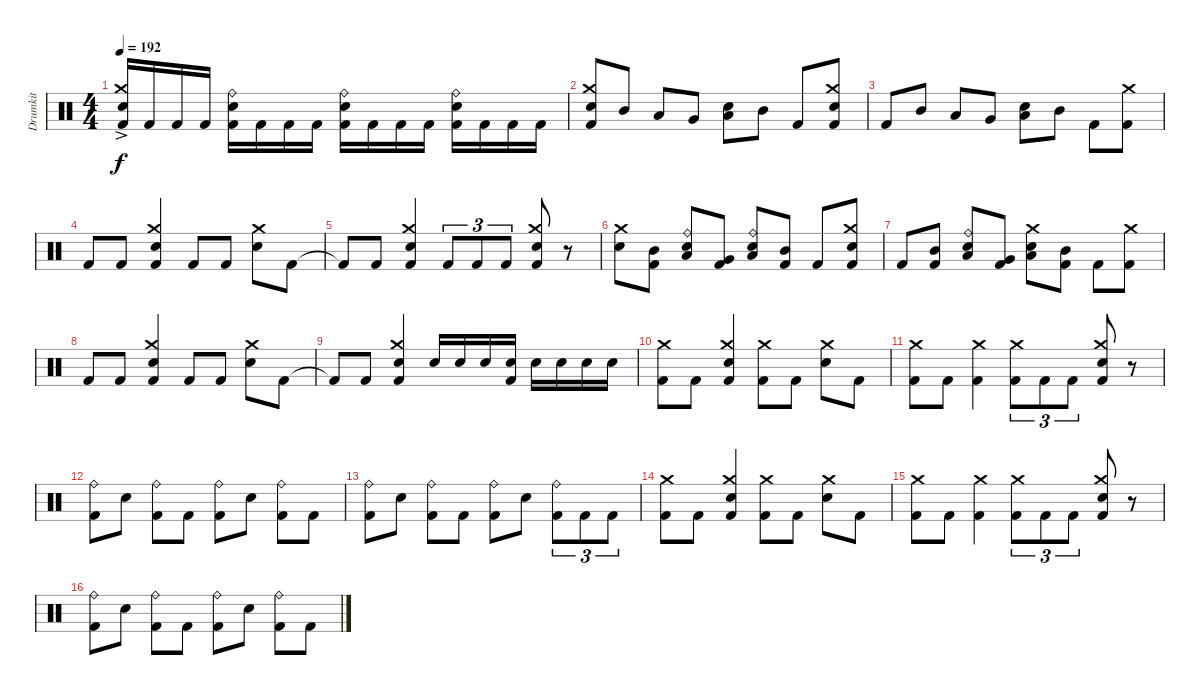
\track ("Drumkit" "Drumkit") {instrument percussion}
\staff {score}
\articulation defaults
\ts (4 4)
\tempo 192
\clef neutral
\ks c
("Kick (hit) 2" "Crash medium (hit)"{ac} "Snare (hit) 2").16{dy f} "Kick (hit) 2".16 "Kick (hit) 2".16 "Kick (hit) 2".16 ("Kick (hit) 2" "Ride (bell)" "Snare (hit) 2").16 "Kick (hit) 2".16 "Kick (hit) 2".16 "Kick (hit) 2".16 ("Kick (hit) 2" "Ride (bell)" "Snare (hit) 2").16 "Kick (hit) 2".16 "Kick (hit) 2".16 "Kick (hit) 2".16 ("Kick (hit) 2" "Ride (bell)" "Snare (hit) 2").16 "Kick (hit) 2".16 "Kick (hit) 2".16 "Kick (hit) 2".16 |
("Kick (hit) 2" "Snare (hit) 2" "Crash medium (hit)").8 "Mid Tom (hit)".8 "Low Tom (hit)".8 "Very Low Tom (hit)".8 ("Snare (hit) 2" "Low Tom (hit)").8 "Mid Tom (hit)".8 "Kick (hit) 2".8 ("Kick (hit) 2" "Snare (hit) 2" "Crash medium (hit)").8 |
"Kick (hit) 2".8 "Mid Tom (hit)".8 "Low Tom (hit)".8 "Very Low Tom (hit)".8 ("Low Tom (hit)" "Snare (hit) 2").8 "Mid Tom (hit)".8 "Kick (hit) 2".8 ("Kick (hit) 2" "Crash medium (hit)").8 |
"Kick (hit) 2".8 "Kick (hit) 2".8 ("Kick (hit) 2" "Snare (hit) 2" "Crash medium (hit)").4 "Kick (hit) 2".8 "Kick (hit) 2".8 ("Snare (hit) 2" "Crash medium (hit)").8 "Kick (hit) 2".8 |
"Kick (hit) 2"{t}.8 "Kick (hit) 2".8 ("Kick (hit) 2" "Snare (hit) 2" "Crash medium (hit)").4 "Kick (hit) 2".8{tu (3 2)} "Kick (hit) 2".8{tu (3 2)} "Kick (hit) 2".8{tu (3 2)} ("Kick (hit) 2" "Snare (hit) 2" "Crash medium (hit)").8 r.8 |
("Snare (hit) 2" "Crash medium (hit)").8 ("Mid Tom (hit)" "Kick (hit) 2").8 ("Low Tom (hit)" "Snare (hit) 2" "Ride (bell)").8 ("Very Low Tom (hit)" "Kick (hit) 2").8 ("Low Tom (hit)" "Snare (hit) 2" "Ride (bell)").8 ("Mid Tom (hit)" "Kick (hit) 2").8 "Kick (hit) 2".8 ("Kick (hit) 2" "Snare (hit) 2" "Crash medium (hit)").8 |
"Kick (hit) 2".8 ("Kick (hit) 2" "Mid Tom (hit)").8 ("Snare (hit) 2" "Low Tom (hit)" "Ride (bell)").8 ("Very Low Tom (hit)" "Kick (hit) 2").8 ("Low Tom (hit)" "Snare (hit) 2" "Crash medium (hit)").8 ("Mid Tom (hit)" "Kick (hit) 2").8 "Kick (hit) 2".8 ("Kick (hit) 2" "Crash medium (hit)").8 |
"Kick (hit) 2".8 "Kick (hit) 2".8 ("Kick (hit) 2" "Snare (hit) 2" "Crash medium (hit)").4 "Kick (hit) 2".8 "Kick (hit) 2".8 ("Snare (hit) 2" "Crash medium (hit)").8 "Kick (hit) 2".8 |
"Kick (hit) 2"{t}.8 "Kick (hit) 2".8 ("Kick (hit) 2" "Snare (hit) 2" "Crash medium (hit)").4 "Snare (hit) 2".16 "Snare (hit) 2".16 "Snare (hit) 2".16 ("Snare (hit) 2" "Kick (hit) 2").16 "Snare (hit) 2".16 "Snare (hit) 2".16 "Snare (hit) 2".16 "Snare (hit) 2".16 |
("Kick (hit) 2" "Crash medium (hit)").8 "Kick (hit) 2".8 ("Kick (hit) 2" "Snare (hit) 2" "Crash medium (hit)").4 ("Crash medium (hit)" "Kick (hit) 2").8 "Kick (hit) 2".8 ("Snare (hit) 2" "Crash medium (hit)").8 "Kick (hit) 2".8 |
("Kick (hit) 2" "Crash medium (hit)").8 "Kick (hit) 2".8 ("Kick (hit) 2" "Crash medium (hit)").4 ("Crash medium (hit)" "Kick (hit) 2").8{tu (3 2)} "Kick (hit) 2".8{tu (3 2)} "Kick (hit) 2".8{tu (3 2)} ("Kick (hit) 2" "Snare (hit) 2" "Crash medium (hit)").8 r.8 |
("Kick (hit) 2" "Ride (bell)").8 "Snare (hit) 2".8 ("Kick (hit) 2" "Ride (bell)").8 "Kick (hit) 2".8 ("Kick (hit) 2" "Ride (bell)").8 "Snare (hit) 2".8 ("Kick (hit) 2" "Ride (bell)").8 "Kick (hit) 2".8 |
("Kick (hit) 2" "Ride (bell)").8 "Snare (hit) 2".8 ("Kick (hit) 2" "Ride (bell)").8 "Kick (hit) 2".8 ("Kick (hit) 2" "Ride (bell)").8 "Snare (hit) 2".8 ("Kick (hit) 2" "Ride (bell)").8{tu (3 2)} "Kick (hit) 2".8{tu (3 2)} "Kick (hit) 2".8{tu (3 2)} |
("Kick (hit) 2" "Crash medium (hit)").8 "Kick (hit) 2".8 ("Kick (hit) 2" "Snare (hit) 2" "Crash medium (hit)").4 ("Crash medium (hit)" "Kick (hit) 2").8 "Kick (hit) 2".8 ("Snare (hit) 2" "Crash medium (hit)").8 "Kick (hit) 2".8 |
("Kick (hit) 2" "Crash medium (hit)").8 "Kick (hit) 2".8 ("Kick (hit) 2" "Crash medium (hit)").4 ("Crash medium (hit)" "Kick (hit) 2").8{tu (3 2)} "Kick (hit) 2".8{tu (3 2)} "Kick (hit) 2".8{tu (3 2)} ("Kick (hit) 2" "Snare (hit) 2" "Crash medium (hit)").8 r.8 |
("Kick (hit) 2" "Ride (bell)").8 "Snare (hit) 2".8 ("Kick (hit) 2" "Ride (bell)").8 "Kick (hit) 2".8 ("Kick (hit) 2" "Ride (bell)").8 "Snare (hit) 2".8 ("Kick (hit) 2" "Ride (bell)").8 "Kick (hit) 2".8
